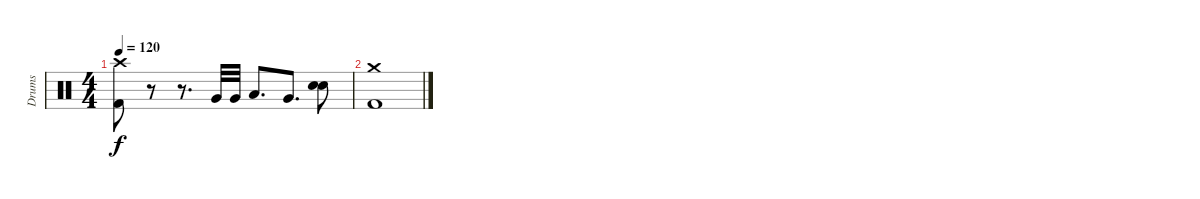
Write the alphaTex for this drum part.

\track ("Drums" "Drums") {instrument percussion}
\staff {score}
\articulation defaults
\ts (4 4)
\tempo 120
\clef neutral
\ks c
("Crash high (hit)" "Kick (hit) 2").8{dy f} r.8 r.8{d} "Very Low Tom (hit)".32 "Very Low Tom (hit)".32 "Low Tom (hit)".8{d} "Very Low Tom (hit)".8{d} ("Electric Snare (hit)" "Snare (hit) 2").8 |
("Crash medium (hit)" "Kick (hit) 2").1
